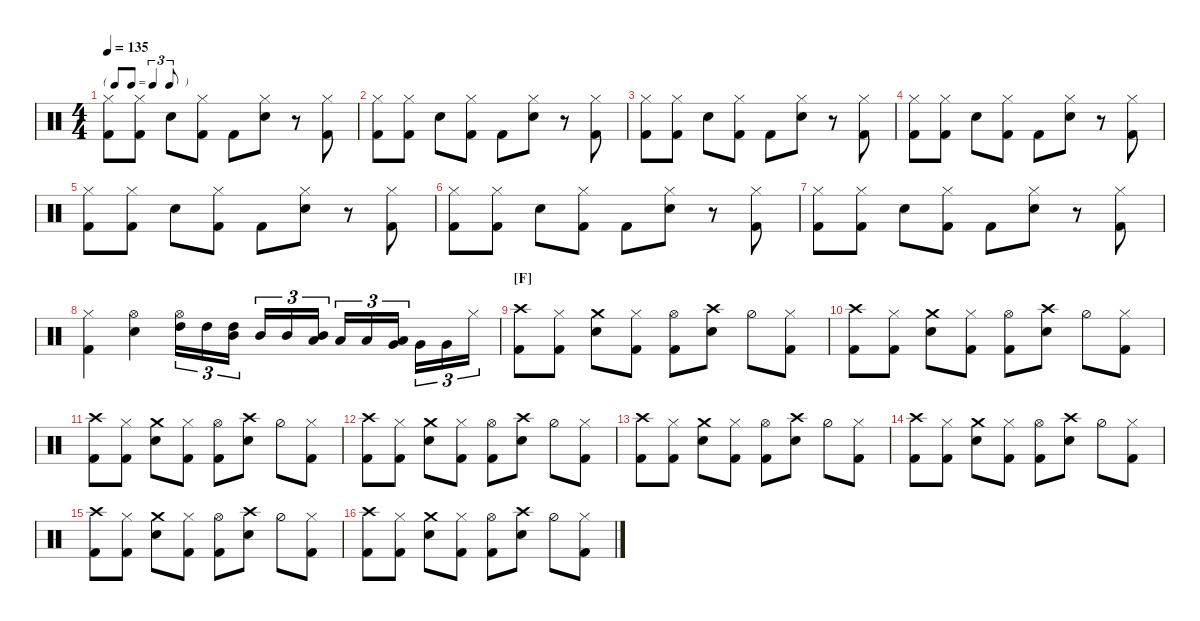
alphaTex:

\defaultSystemsLayout 4
\hideDynamics
\bracketExtendMode nobrackets
\singleTrackTrackNamePolicy hidden
\multiTrackTrackNamePolicy hidden
\firstSystemTrackNameMode fullname
\firstSystemTrackNameOrientation horizontal
\otherSystemsTrackNameOrientation horizontal
\track ("Drum" "Drums") {instrument percussion}
\staff {score}
\articulation defaults
\ts (4 4)
\tf triplet8th
\scale
0.225806
\tempo 135
\accidentals auto
\clef neutral
\ottava regular
\simile none
\scale
0.25
\ks c
("Kick (hit) 2" "Hi-Hat (closed)").8{dy f beam Down} ("Kick (hit) 2" "Hi-Hat (closed)").8{beam Down} "Snare (hit) 2".8{beam Down} ("Kick (hit) 2" "Hi-Hat (closed)").8{beam Down} "Kick (hit) 2".8{beam Down} ("Snare (hit) 2" "Hi-Hat (closed)").8{beam Down} r.8{beam Down} ("Kick (hit) 2" "Hi-Hat (closed)").8{beam Down} |
\scale
0.322581
\scale
0.25 ("Kick (hit) 2" "Hi-Hat (closed)").8{beam Down} ("Kick (hit) 2" "Hi-Hat (closed)").8{beam Down} "Snare (hit) 2".8{beam Down} ("Kick (hit) 2" "Hi-Hat (closed)").8{beam Down} "Kick (hit) 2".8{beam Down} ("Snare (hit) 2" "Hi-Hat (closed)").8{beam Down} r.8{beam Down} ("Kick (hit) 2" "Hi-Hat (closed)").8{beam Down} |
\scale
0.225806
\scale
0.25 ("Kick (hit) 2" "Hi-Hat (closed)").8{beam Down} ("Kick (hit) 2" "Hi-Hat (closed)").8{beam Down} "Snare (hit) 2".8{beam Down} ("Kick (hit) 2" "Hi-Hat (closed)").8{beam Down} "Kick (hit) 2".8{beam Down} ("Snare (hit) 2" "Hi-Hat (closed)").8{beam Down} r.8{beam Down} ("Kick (hit) 2" "Hi-Hat (closed)").8{beam Down} |
\scale
0.225806
\scale
0.25 ("Kick (hit) 2" "Hi-Hat (closed)").8{beam Down} ("Kick (hit) 2" "Hi-Hat (closed)").8{beam Down} "Snare (hit) 2".8{beam Down} ("Kick (hit) 2" "Hi-Hat (closed)").8{beam Down} "Kick (hit) 2".8{beam Down} ("Snare (hit) 2" "Hi-Hat (closed)").8{beam Down} r.8{beam Down} ("Kick (hit) 2" "Hi-Hat (closed)").8{beam Down} |
\scale
0.265957
\scale
0.197287 ("Kick (hit) 2" "Hi-Hat (closed)").8{beam Down} ("Kick (hit) 2" "Hi-Hat (closed)").8{beam Down} "Snare (hit) 2".8{beam Down} ("Kick (hit) 2" "Hi-Hat (closed)").8{beam Down} "Kick (hit) 2".8{beam Down} ("Snare (hit) 2" "Hi-Hat (closed)").8{beam Down} r.8{beam Down} ("Kick (hit) 2" "Hi-Hat (closed)").8{beam Down} |
\scale
0.244681
\scale
0.197287 ("Kick (hit) 2" "Hi-Hat (closed)").8{beam Down} ("Kick (hit) 2" "Hi-Hat (closed)").8{beam Down} "Snare (hit) 2".8{beam Down} ("Kick (hit) 2" "Hi-Hat (closed)").8{beam Down} "Kick (hit) 2".8{beam Down} ("Snare (hit) 2" "Hi-Hat (closed)").8{beam Down} r.8{beam Down} ("Kick (hit) 2" "Hi-Hat (closed)").8{beam Down} |
\scale
0.265957
\scale
0.197287 ("Kick (hit) 2" "Hi-Hat (closed)").8{beam Down} ("Kick (hit) 2" "Hi-Hat (closed)").8{beam Down} "Snare (hit) 2".8{beam Down} ("Kick (hit) 2" "Hi-Hat (closed)").8{beam Down} "Kick (hit) 2".8{beam Down} ("Snare (hit) 2" "Hi-Hat (closed)").8{beam Down} r.8{beam Down} ("Kick (hit) 2" "Hi-Hat (closed)").8{beam Down} |
\scale
0.223404
\scale
0.408138 ("Kick (hit) 2" "Hi-Hat (closed)").4{beam Down} ("Snare (hit) 2" "Hi-Hat (open)").4{beam Down} ("Hi-Hat (open)" "High Tom (hit)").16{tu (3 2) beam Down} "High Tom (hit)".16{tu (3 2) beam Down} ("High Tom (hit)" "Mid Tom (hit)").16{tu (3 2) beam Down} "Mid Tom (hit)".16{tu (3 2) beam Up} "Mid Tom (hit)".16{tu (3 2) beam Up} ("Mid Tom (hit)" "Low Tom (hit)").16{tu (3 2) beam Up} "Low Tom (hit)".16{tu (3 2) beam Up} "Low Tom (hit)".16{tu (3 2) beam Up} ("Low Tom (hit)" "Very Low Tom (hit)").16{tu (3 2) beam Up} "Very Low Tom (hit)".16{tu (3 2) beam Down} "Very Low Tom (hit)".16{tu (3 2) beam Down} "Hi-Hat (closed)".16{tu (3 2) beam Down} |
\section ("F" "")
\scale
0.25
\scale
0.25 ("Kick (hit) 2" "Crash high (hit)").8{beam Down} ("Kick (hit) 2" "Hi-Hat (closed)").8{beam Down} ("Snare (hit) 2" "Crash medium (hit)").8{beam Down} ("Kick (hit) 2" "Hi-Hat (closed)").8{beam Down} ("Kick (hit) 2" "Hi-Hat (open)").8{beam Down} ("Snare (hit) 2" "Crash high (hit)").8{beam Down} "Hi-Hat (half)".8{beam Down} ("Kick (hit) 2" "Hi-Hat (closed)").8{beam Down} |
\scale
0.25
\scale
0.25 ("Kick (hit) 2" "Crash high (hit)").8{beam Down} ("Kick (hit) 2" "Hi-Hat (closed)").8{beam Down} ("Snare (hit) 2" "Crash medium (hit)").8{beam Down} ("Kick (hit) 2" "Hi-Hat (closed)").8{beam Down} ("Kick (hit) 2" "Hi-Hat (open)").8{beam Down} ("Snare (hit) 2" "Crash high (hit)").8{beam Down} "Hi-Hat (half)".8{beam Down} ("Kick (hit) 2" "Hi-Hat (closed)").8{beam Down} |
\scale
0.25
\scale
0.25 ("Kick (hit) 2" "Crash high (hit)").8{beam Down} ("Kick (hit) 2" "Hi-Hat (closed)").8{beam Down} ("Snare (hit) 2" "Crash medium (hit)").8{beam Down} ("Kick (hit) 2" "Hi-Hat (closed)").8{beam Down} ("Kick (hit) 2" "Hi-Hat (open)").8{beam Down} ("Snare (hit) 2" "Crash high (hit)").8{beam Down} "Hi-Hat (half)".8{beam Down} ("Kick (hit) 2" "Hi-Hat (closed)").8{beam Down} |
\scale
0.25
\scale
0.25 ("Kick (hit) 2" "Crash high (hit)").8{beam Down} ("Kick (hit) 2" "Hi-Hat (closed)").8{beam Down} ("Snare (hit) 2" "Crash medium (hit)").8{beam Down} ("Kick (hit) 2" "Hi-Hat (closed)").8{beam Down} ("Kick (hit) 2" "Hi-Hat (open)").8{beam Down} ("Snare (hit) 2" "Crash high (hit)").8{beam Down} "Hi-Hat (half)".8{beam Down} ("Kick (hit) 2" "Hi-Hat (closed)").8{beam Down} |
\scale
0.25
\scale
0.25 ("Kick (hit) 2" "Crash high (hit)").8{beam Down} ("Kick (hit) 2" "Hi-Hat (closed)").8{beam Down} ("Snare (hit) 2" "Crash medium (hit)").8{beam Down} ("Kick (hit) 2" "Hi-Hat (closed)").8{beam Down} ("Kick (hit) 2" "Hi-Hat (open)").8{beam Down} ("Snare (hit) 2" "Crash high (hit)").8{beam Down} "Hi-Hat (half)".8{beam Down} ("Kick (hit) 2" "Hi-Hat (closed)").8{beam Down} |
\scale
0.25
\scale
0.25 ("Kick (hit) 2" "Crash high (hit)").8{beam Down} ("Kick (hit) 2" "Hi-Hat (closed)").8{beam Down} ("Snare (hit) 2" "Crash medium (hit)").8{beam Down} ("Kick (hit) 2" "Hi-Hat (closed)").8{beam Down} ("Kick (hit) 2" "Hi-Hat (open)").8{beam Down} ("Snare (hit) 2" "Crash high (hit)").8{beam Down} "Hi-Hat (half)".8{beam Down} ("Kick (hit) 2" "Hi-Hat (closed)").8{beam Down} |
\scale
0.25
\scale
0.25 ("Kick (hit) 2" "Crash high (hit)").8{beam Down} ("Kick (hit) 2" "Hi-Hat (closed)").8{beam Down} ("Snare (hit) 2" "Crash medium (hit)").8{beam Down} ("Kick (hit) 2" "Hi-Hat (closed)").8{beam Down} ("Kick (hit) 2" "Hi-Hat (open)").8{beam Down} ("Snare (hit) 2" "Crash high (hit)").8{beam Down} "Hi-Hat (half)".8{beam Down} ("Kick (hit) 2" "Hi-Hat (closed)").8{beam Down} |
\scale
0.25
\scale
0.25 ("Kick (hit) 2" "Crash high (hit)").8{beam Down} ("Kick (hit) 2" "Hi-Hat (closed)").8{beam Down} ("Snare (hit) 2" "Crash medium (hit)").8{beam Down} ("Kick (hit) 2" "Hi-Hat (closed)").8{beam Down} ("Kick (hit) 2" "Hi-Hat (open)").8{beam Down} ("Snare (hit) 2" "Crash high (hit)").8{beam Down} "Hi-Hat (half)".8{beam Down} ("Kick (hit) 2" "Hi-Hat (closed)").8{beam Down}
